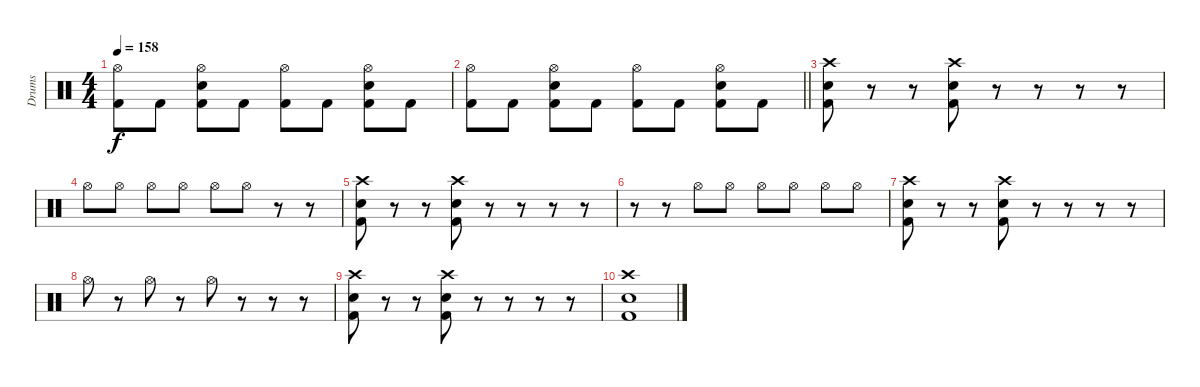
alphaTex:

\track ("Drums" "Drums") {instrument percussion}
\staff {score}
\articulation defaults
\ts (4 4)
\tempo 158
\clef neutral
\ks c
("Hi-Hat (open)" "Kick (hit) 2").8{dy f} "Kick (hit) 2".8 ("Hi-Hat (open)" "Electric Snare (hit)" "Kick (hit) 2").8 "Kick (hit) 2".8 ("Hi-Hat (open)" "Kick (hit) 2").8 "Kick (hit) 2".8 ("Hi-Hat (open)" "Kick (hit) 2" "Electric Snare (hit)").8 "Kick (hit) 2".8 |
\barLineRight lightlight
("Hi-Hat (open)" "Kick (hit) 2").8 "Kick (hit) 2".8 ("Hi-Hat (open)" "Electric Snare (hit)" "Kick (hit) 2").8 "Kick (hit) 2".8 ("Hi-Hat (open)" "Kick (hit) 2").8 "Kick (hit) 2".8 ("Hi-Hat (open)" "Kick (hit) 2" "Electric Snare (hit)").8 "Kick (hit) 2".8 |
("Crash high (hit)" "Electric Snare (hit)" "Kick (hit) 2").8 r.8 r.8 ("Crash high (hit)" "Electric Snare (hit)" "Kick (hit) 2").8 r.8 r.8 r.8 r.8 |
"Hi-Hat (open)".8 "Hi-Hat (open)".8 "Hi-Hat (open)".8 "Hi-Hat (open)".8 "Hi-Hat (open)".8 "Hi-Hat (open)".8 r.8 r.8 |
("Crash high (hit)" "Electric Snare (hit)" "Kick (hit) 2").8 r.8 r.8 ("Crash high (hit)" "Electric Snare (hit)" "Kick (hit) 2").8 r.8 r.8 r.8 r.8 |
r.8 r.8 "Hi-Hat (open)".8 "Hi-Hat (open)".8 "Hi-Hat (open)".8 "Hi-Hat (open)".8 "Hi-Hat (open)".8 "Hi-Hat (open)".8 |
("Crash high (hit)" "Electric Snare (hit)" "Kick (hit) 2").8 r.8 r.8 ("Crash high (hit)" "Electric Snare (hit)" "Kick (hit) 2").8 r.8 r.8 r.8 r.8 |
"Hi-Hat (open)".8 r.8 "Hi-Hat (open)".8 r.8 "Hi-Hat (open)".8 r.8 r.8 r.8 |
("Crash high (hit)" "Electric Snare (hit)" "Kick (hit) 2").8 r.8 r.8 ("Crash high (hit)" "Electric Snare (hit)" "Kick (hit) 2").8 r.8 r.8 r.8 r.8 |
("Crash high (hit)" "Electric Snare (hit)" "Kick (hit) 2").1
